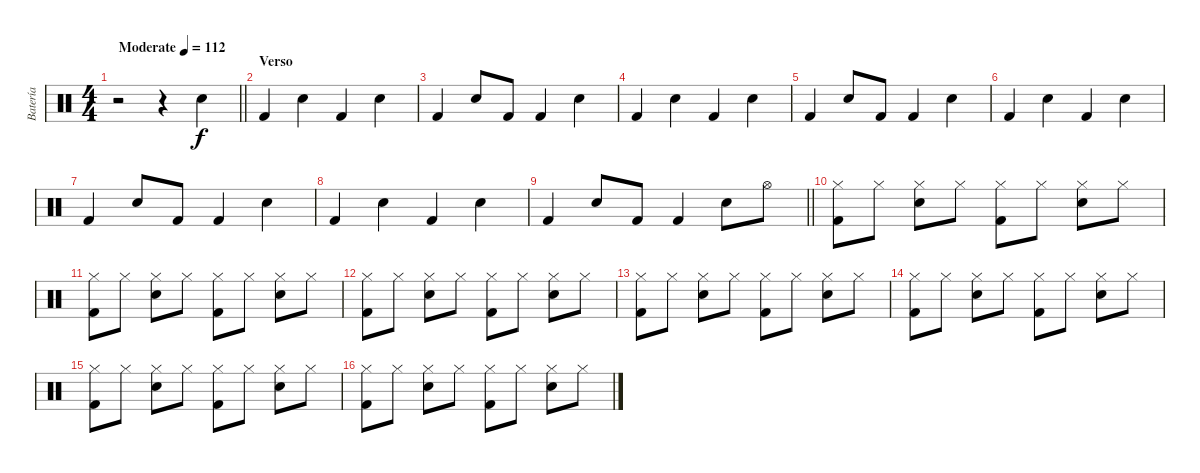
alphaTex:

\track ("Batería" "Batería") {instrument percussion}
\staff {score}
\articulation defaults
\ts (4 4)
\tempo (112 "Moderate")
\clef neutral
\barLineRight lightlight
\ks c
r.2{dy f} r.4 "Electric Snare (hit)".4 |
\section ("" "Verso")
"Kick (hit) 2".4 "Electric Snare (hit)".4 "Kick (hit) 2".4 "Electric Snare (hit)".4 |
"Kick (hit) 2".4 "Electric Snare (hit)".8 "Kick (hit) 2".8 "Kick (hit) 2".4 "Electric Snare (hit)".4 |
"Kick (hit) 2".4 "Electric Snare (hit)".4 "Kick (hit) 2".4 "Electric Snare (hit)".4 |
"Kick (hit) 2".4 "Electric Snare (hit)".8 "Kick (hit) 2".8 "Kick (hit) 2".4 "Electric Snare (hit)".4 |
"Kick (hit) 2".4 "Electric Snare (hit)".4 "Kick (hit) 2".4 "Electric Snare (hit)".4 |
"Kick (hit) 2".4 "Electric Snare (hit)".8 "Kick (hit) 2".8 "Kick (hit) 2".4 "Electric Snare (hit)".4 |
"Kick (hit) 2".4 "Electric Snare (hit)".4 "Kick (hit) 2".4 "Electric Snare (hit)".4 |
\barLineRight lightlight "Kick (hit) 2".4 "Electric Snare (hit)".8 "Kick (hit) 2".8 "Kick (hit) 2".4 "Electric Snare (hit)".8 "Hi-Hat (open)".8
|
\section ("" "")
("Kick (hit) 2" "Hi-Hat (closed)").8 "Hi-Hat (closed)".8 ("Electric Snare (hit)" "Hi-Hat (closed)").8 "Hi-Hat (closed)".8 ("Kick (hit) 2" "Hi-Hat (closed)").8 "Hi-Hat (closed)".8 ("Electric Snare (hit)" "Hi-Hat (closed)").8 "Hi-Hat (closed)".8 |
("Kick (hit) 2" "Hi-Hat (closed)").8 "Hi-Hat (closed)".8 ("Electric Snare (hit)" "Hi-Hat (closed)").8 "Hi-Hat (closed)".8 ("Kick (hit) 2" "Hi-Hat (closed)").8 "Hi-Hat (closed)".8 ("Electric Snare (hit)" "Hi-Hat (closed)").8 "Hi-Hat (closed)".8 |
("Kick (hit) 2" "Hi-Hat (closed)").8 "Hi-Hat (closed)".8 ("Electric Snare (hit)" "Hi-Hat (closed)").8 "Hi-Hat (closed)".8 ("Kick (hit) 2" "Hi-Hat (closed)").8 "Hi-Hat (closed)".8 ("Electric Snare (hit)" "Hi-Hat (closed)").8 "Hi-Hat (closed)".8 |
("Kick (hit) 2" "Hi-Hat (closed)").8 "Hi-Hat (closed)".8 ("Electric Snare (hit)" "Hi-Hat (closed)").8 "Hi-Hat (closed)".8 ("Kick (hit) 2" "Hi-Hat (closed)").8 "Hi-Hat (closed)".8 ("Electric Snare (hit)" "Hi-Hat (closed)").8 "Hi-Hat (closed)".8 |
("Kick (hit) 2" "Hi-Hat (closed)").8 "Hi-Hat (closed)".8 ("Electric Snare (hit)" "Hi-Hat (closed)").8 "Hi-Hat (closed)".8 ("Kick (hit) 2" "Hi-Hat (closed)").8 "Hi-Hat (closed)".8 ("Electric Snare (hit)" "Hi-Hat (closed)").8 "Hi-Hat (closed)".8 |
("Kick (hit) 2" "Hi-Hat (closed)").8 "Hi-Hat (closed)".8 ("Electric Snare (hit)" "Hi-Hat (closed)").8 "Hi-Hat (closed)".8 ("Kick (hit) 2" "Hi-Hat (closed)").8 "Hi-Hat (closed)".8 ("Electric Snare (hit)" "Hi-Hat (closed)").8 "Hi-Hat (closed)".8 |
("Kick (hit) 2" "Hi-Hat (closed)").8 "Hi-Hat (closed)".8 ("Electric Snare (hit)" "Hi-Hat (closed)").8 "Hi-Hat (closed)".8 ("Kick (hit) 2" "Hi-Hat (closed)").8 "Hi-Hat (closed)".8 ("Electric Snare (hit)" "Hi-Hat (closed)").8 "Hi-Hat (closed)".8
